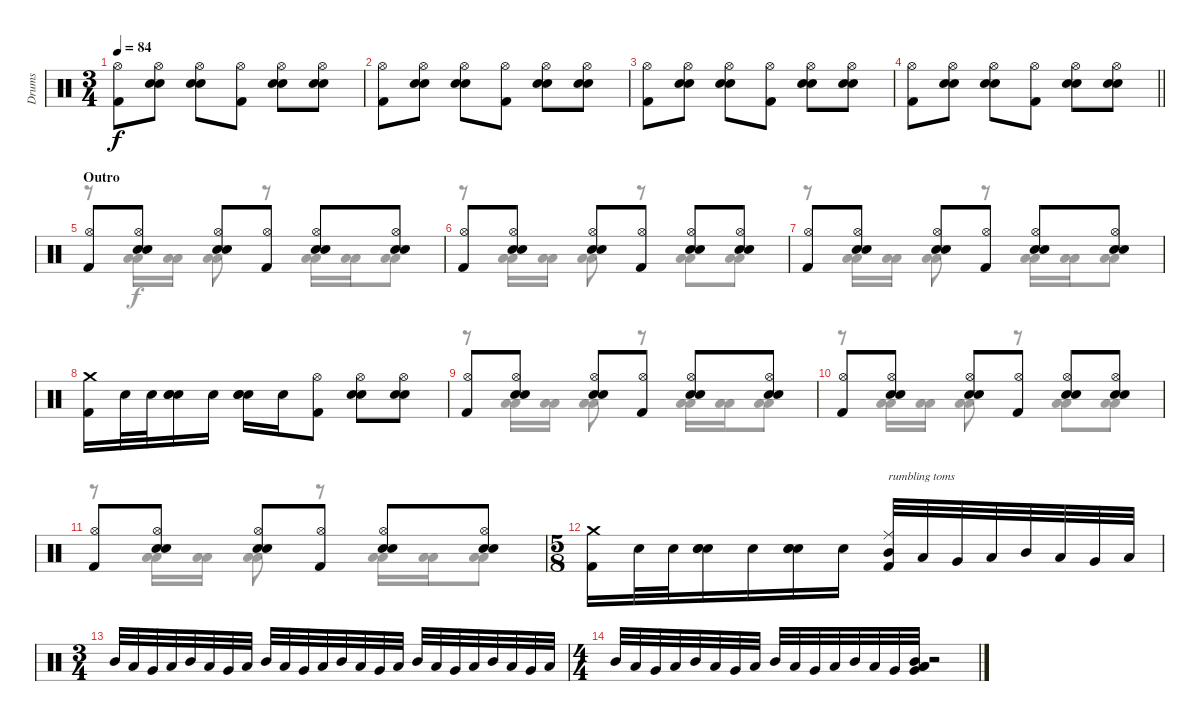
\track ("Drums" "Drums") {instrument percussion}
\staff {score}
\articulation defaults
\voice
\ts (3 4)
\tempo 84
\clef neutral
\ks c
("Hi-Hat (open)" "Kick (hit) 2").8{dy f} ("Hi-Hat (open)" "Hand Clap (hit)" "Hand Clap (hit)").8{bd 60} ("Hi-Hat (open)" "Hand Clap (hit)" "Hand Clap (hit)").8{bd 60} ("Hi-Hat (open)" "Kick (hit) 2").8 ("Hi-Hat (open)" "Hand Clap (hit)" "Hand Clap (hit)").8{bd 60} ("Hi-Hat (open)" "Hand Clap (hit)" "Hand Clap (hit)").8{bd 60} |
("Hi-Hat (open)" "Kick (hit) 2").8 ("Hi-Hat (open)" "Hand Clap (hit)" "Hand Clap (hit)").8{bd 60} ("Hi-Hat (open)" "Hand Clap (hit)" "Hand Clap (hit)").8{bd 60} ("Hi-Hat (open)" "Kick (hit) 2").8 ("Hi-Hat (open)" "Hand Clap (hit)" "Hand Clap (hit)").8{bd 60} ("Hi-Hat (open)" "Hand Clap (hit)" "Hand Clap (hit)").8{bd 60} |
("Hi-Hat (open)" "Kick (hit) 2").8 ("Hi-Hat (open)" "Hand Clap (hit)" "Hand Clap (hit)").8{bd 60} ("Hi-Hat (open)" "Hand Clap (hit)" "Hand Clap (hit)").8{bd 60} ("Hi-Hat (open)" "Kick (hit) 2").8 ("Hi-Hat (open)" "Hand Clap (hit)" "Hand Clap (hit)").8{bd 60} ("Hi-Hat (open)" "Hand Clap (hit)" "Hand Clap (hit)").8{bd 60} |
\barLineRight lightlight
("Hi-Hat (open)" "Kick (hit) 2").8 ("Hi-Hat (open)" "Hand Clap (hit)" "Hand Clap (hit)").8{bd 60} ("Hi-Hat (open)" "Hand Clap (hit)" "Hand Clap (hit)").8{bd 60} ("Hi-Hat (open)" "Kick (hit) 2").8 ("Hi-Hat (open)" "Hand Clap (hit)" "Hand Clap (hit)").8{bd 60} ("Hi-Hat (open)" "Hand Clap (hit)" "Hand Clap (hit)").8{bd 60} |
\section ("" "Outro")
("Hi-Hat (open)" "Kick (hit) 2").8 ("Hi-Hat (open)" "Hand Clap (hit)" "Hand Clap (hit)").8{bd 60} ("Hi-Hat (open)" "Hand Clap (hit)" "Hand Clap (hit)").8{bd 60} ("Hi-Hat (open)" "Kick (hit) 2").8 ("Hi-Hat (open)" "Hand Clap (hit)" "Hand Clap (hit)").8{bd 60} ("Hi-Hat (open)" "Hand Clap (hit)" "Hand Clap (hit)").8{bd 60} |
("Hi-Hat (open)" "Kick (hit) 2").8 ("Hi-Hat (open)" "Hand Clap (hit)" "Hand Clap (hit)").8{bd 60} ("Hi-Hat (open)" "Hand Clap (hit)" "Hand Clap (hit)").8{bd 60} ("Hi-Hat (open)" "Kick (hit) 2").8 ("Hi-Hat (open)" "Hand Clap (hit)" "Hand Clap (hit)").8{bd 60} ("Hi-Hat (open)" "Hand Clap (hit)" "Hand Clap (hit)").8{bd 60} |
("Hi-Hat (open)" "Kick (hit) 2").8 ("Hi-Hat (open)" "Hand Clap (hit)" "Hand Clap (hit)").8{bd 60} ("Hi-Hat (open)" "Hand Clap (hit)" "Hand Clap (hit)").8{bd 60} ("Hi-Hat (open)" "Kick (hit) 2").8 ("Hi-Hat (open)" "Hand Clap (hit)" "Hand Clap (hit)").8{bd 60} ("Hi-Hat (open)" "Hand Clap (hit)" "Hand Clap (hit)").8{bd 60} |
("Crash medium (hit)" "Kick (hit) 2").16 "Electric Snare (hit)".32 "Electric Snare (hit)".32 ("Hand Clap (hit)" "Hand Clap (hit)" "Electric Snare (hit)").16 "Electric Snare (hit)".16 ("Hand Clap (hit)" "Hand Clap (hit)" "Electric Snare (hit)").16 "Electric Snare (hit)".16 ("Hi-Hat (open)" "Kick (hit) 2").8 ("Hi-Hat (open)" "Hand Clap (hit)" "Hand Clap (hit)").8{bd 60} ("Hi-Hat (open)" "Hand Clap (hit)" "Hand Clap (hit)").8{bd 60} |
("Hi-Hat (open)" "Kick (hit) 2").8 ("Hi-Hat (open)" "Hand Clap (hit)" "Hand Clap (hit)").8{bd 60} ("Hi-Hat (open)" "Hand Clap (hit)" "Hand Clap (hit)").8{bd 60} ("Hi-Hat (open)" "Kick (hit) 2").8 ("Hi-Hat (open)" "Hand Clap (hit)" "Hand Clap (hit)").8{bd 60} ("Hi-Hat (open)" "Hand Clap (hit)" "Hand Clap (hit)").8{bd 60} |
("Hi-Hat (open)" "Kick (hit) 2").8 ("Hi-Hat (open)" "Hand Clap (hit)" "Hand Clap (hit)").8{bd 60} ("Hi-Hat (open)" "Hand Clap (hit)" "Hand Clap (hit)").8{bd 60} ("Hi-Hat (open)" "Kick (hit) 2").8 ("Hi-Hat (open)" "Hand Clap (hit)" "Hand Clap (hit)").8{bd 60} ("Hi-Hat (open)" "Hand Clap (hit)" "Hand Clap (hit)").8{bd 60} |
("Hi-Hat (open)" "Kick (hit) 2").8 ("Hi-Hat (open)" "Hand Clap (hit)" "Hand Clap (hit)").8{bd 60} ("Hi-Hat (open)" "Hand Clap (hit)" "Hand Clap (hit)").8{bd 60} ("Hi-Hat (open)" "Kick (hit) 2").8 ("Hi-Hat (open)" "Hand Clap (hit)" "Hand Clap (hit)").8{bd 60} ("Hi-Hat (open)" "Hand Clap (hit)" "Hand Clap (hit)").8{bd 60} |
\ts (5 8)
("Crash medium (hit)" "Kick (hit) 2").16 "Electric Snare (hit)".32 "Electric Snare (hit)".32 ("Hand Clap (hit)" "Hand Clap (hit)" "Electric Snare (hit)").16 "Electric Snare (hit)".16 ("Hand Clap (hit)" "Hand Clap (hit)" "Electric Snare (hit)").16 "Electric Snare (hit)".16 ("Ride (middle)" "Mid Tom (hit)" "Kick (hit) 2").32{txt "rumbling toms" volume 4} "Low Tom (hit)".32 "Very Low Tom (hit)".32 "Low Floor Tom (hit)".32 "Mid Tom (hit)".32 "Low Tom (hit)".32 "Very Low Tom (hit)".32 "Low Floor Tom (hit)".32 |
\ts (3 4)
"Mid Tom (hit)".32 "Low Tom (hit)".32 "Very Low Tom (hit)".32 "Low Floor Tom (hit)".32 "Mid Tom (hit)".32 "Low Tom (hit)".32 "Very Low Tom (hit)".32 "Low Floor Tom (hit)".32 "Mid Tom (hit)".32 "Low Tom (hit)".32 "Very Low Tom (hit)".32 "Low Floor Tom (hit)".32 "Mid Tom (hit)".32 "Low Tom (hit)".32 "Very Low Tom (hit)".32 "Low Floor Tom (hit)".32 "Mid Tom (hit)".32 "Low Tom (hit)".32 "Very Low Tom (hit)".32 "Low Floor Tom (hit)".32 "Mid Tom (hit)".32 "Low Tom (hit)".32 "Very Low Tom (hit)".32 "Low Floor Tom (hit)".32 |
\ts (4 4)
"Mid Tom (hit)".32 "Low Tom (hit)".32 "Very Low Tom (hit)".32 "Low Floor Tom (hit)".32 "Mid Tom (hit)".32 "Low Tom (hit)".32 "Very Low Tom (hit)".32 "Low Floor Tom (hit)".32 "Mid Tom (hit)".32{volume 10} "Low Tom (hit)".32 "Very Low Tom (hit)".32 "Low Floor Tom (hit)".32 "Mid Tom (hit)".32 "Low Tom (hit)".32 "Very Low Tom (hit)".32 ("Mid Tom (hit)" "Low Tom (hit)" "Very Low Tom (hit)" "Low Floor Tom (hit)").32 r.2 |
|
\voice
\clef neutral
\ottava regular
\simile none
\ks c
|
|
|
\barLineRight lightlight
|
r.8 ("Low Tom (hit)" "Low Floor Tom (hit)").16 ("Low Tom (hit)" "Low Floor Tom (hit)").16 ("Low Tom (hit)" "Low Floor Tom (hit)").8 r.8 ("Low Tom (hit)" "Low Floor Tom (hit)").16 ("Low Tom (hit)" "Low Floor Tom (hit)").16 ("Low Tom (hit)" "Low Floor Tom (hit)").8 |
r.8 ("Low Tom (hit)" "Low Floor Tom (hit)").16 ("Low Tom (hit)" "Low Floor Tom (hit)").16 ("Low Tom (hit)" "Low Floor Tom (hit)").8 r.8 ("Low Tom (hit)" "Low Floor Tom (hit)").8 ("Low Tom (hit)" "Low Floor Tom (hit)").8 |
r.8 ("Low Tom (hit)" "Low Floor Tom (hit)").16 ("Low Tom (hit)" "Low Floor Tom (hit)").16 ("Low Tom (hit)" "Low Floor Tom (hit)").8 r.8 ("Low Tom (hit)" "Low Floor Tom (hit)").16 ("Low Tom (hit)" "Low Floor Tom (hit)").16 ("Low Tom (hit)" "Low Floor Tom (hit)").8 |
|
r.8 ("Low Tom (hit)" "Low Floor Tom (hit)").16 ("Low Tom (hit)" "Low Floor Tom (hit)").16 ("Low Tom (hit)" "Low Floor Tom (hit)").8 r.8 ("Low Tom (hit)" "Low Floor Tom (hit)").16 ("Low Tom (hit)" "Low Floor Tom (hit)").16 ("Low Tom (hit)" "Low Floor Tom (hit)").8 |
r.8 ("Low Tom (hit)" "Low Floor Tom (hit)").16 ("Low Tom (hit)" "Low Floor Tom (hit)").16 ("Low Tom (hit)" "Low Floor Tom (hit)").8 r.8 ("Low Tom (hit)" "Low Floor Tom (hit)").8 ("Low Tom (hit)" "Low Floor Tom (hit)").8 |
r.8 ("Low Tom (hit)" "Low Floor Tom (hit)").16 ("Low Tom (hit)" "Low Floor Tom (hit)").16 ("Low Tom (hit)" "Low Floor Tom (hit)").8 r.8 ("Low Tom (hit)" "Low Floor Tom (hit)").16 ("Low Tom (hit)" "Low Floor Tom (hit)").16 ("Low Tom (hit)" "Low Floor Tom (hit)").8 |
|
|
|
|
